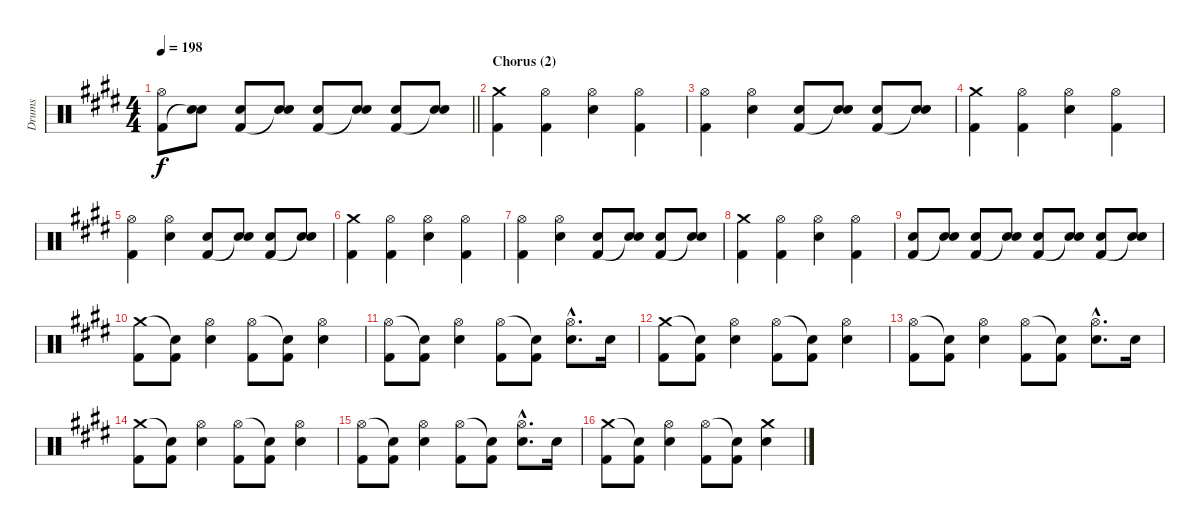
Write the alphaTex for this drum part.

\track ("Drums" "Drums") {instrument percussion}
\staff {score}
\articulation defaults
\ts (4 4)
\tempo 198
\clef neutral
\barLineRight lightlight
\ks c#minor
("Hi-Hat (open)" "Kick (hit) 2").8{dy f} ("Electric Snare (hit)" "Snare (hit)"{t}).8 ("Electric Snare (hit)" "Kick (hit) 2").8 ("Electric Snare (hit)" "Snare (hit)"{t}).8 ("Electric Snare (hit)" "Kick (hit) 2").8 ("Electric Snare (hit)" "Snare (hit)"{t}).8 ("Electric Snare (hit)" "Kick (hit) 2").8 ("Electric Snare (hit)" "Snare (hit)"{t}).8 |
\section ("" "Chorus (2)")
("Crash medium (hit)" "Kick (hit) 2").4 ("Hi-Hat (open)" "Kick (hit) 2").4 ("Hi-Hat (open)" "Electric Snare (hit)").4 ("Hi-Hat (open)" "Kick (hit) 2").4 |
("Hi-Hat (open)" "Kick (hit) 2").4 ("Hi-Hat (open)" "Electric Snare (hit)").4 ("Electric Snare (hit)" "Kick (hit) 2").8 ("Electric Snare (hit)" "Snare (hit)"{t}).8 ("Electric Snare (hit)" "Kick (hit) 2").8 ("Electric Snare (hit)" "Snare (hit)"{t}).8 |
("Crash medium (hit)" "Kick (hit) 2").4 ("Hi-Hat (open)" "Kick (hit) 2").4 ("Hi-Hat (open)" "Electric Snare (hit)").4 ("Hi-Hat (open)" "Kick (hit) 2").4 |
("Hi-Hat (open)" "Kick (hit) 2").4 ("Hi-Hat (open)" "Electric Snare (hit)").4 ("Electric Snare (hit)" "Kick (hit) 2").8 ("Electric Snare (hit)" "Snare (hit)"{t}).8 ("Electric Snare (hit)" "Kick (hit) 2").8 ("Electric Snare (hit)" "Snare (hit)"{t}).8 |
("Crash medium (hit)" "Kick (hit) 2").4 ("Hi-Hat (open)" "Kick (hit) 2").4 ("Hi-Hat (open)" "Electric Snare (hit)").4 ("Hi-Hat (open)" "Kick (hit) 2").4 |
("Hi-Hat (open)" "Kick (hit) 2").4 ("Hi-Hat (open)" "Electric Snare (hit)").4 ("Electric Snare (hit)" "Kick (hit) 2").8 ("Electric Snare (hit)" "Snare (hit)"{t}).8 ("Electric Snare (hit)" "Kick (hit) 2").8 ("Electric Snare (hit)" "Snare (hit)"{t}).8 |
("Crash medium (hit)" "Kick (hit) 2").4 ("Hi-Hat (open)" "Kick (hit) 2").4 ("Hi-Hat (open)" "Electric Snare (hit)").4 ("Hi-Hat (open)" "Kick (hit) 2").4 |
("Electric Snare (hit)" "Kick (hit) 2").8 ("Electric Snare (hit)" "Snare (hit)"{t}).8 ("Electric Snare (hit)" "Kick (hit) 2").8 ("Electric Snare (hit)" "Snare (hit)"{t}).8 ("Electric Snare (hit)" "Kick (hit) 2").8 ("Electric Snare (hit)" "Snare (hit)"{t}).8 ("Electric Snare (hit)" "Kick (hit) 2").8 ("Electric Snare (hit)" "Snare (hit)"{t}).8 |
("Crash medium (hit)" "Kick (hit) 2").8 ("Snare (hit)"{t} "Kick (hit) 2").8 ("Hi-Hat (open)" "Electric Snare (hit)").4 ("Hi-Hat (open)" "Kick (hit) 2").8 ("Snare (hit)"{t} "Kick (hit) 2").8 ("Hi-Hat (open)" "Electric Snare (hit)").4 |
("Hi-Hat (open)" "Kick (hit) 2").8 ("Snare (hit)"{t} "Kick (hit) 2").8 ("Hi-Hat (open)" "Electric Snare (hit)").4 ("Hi-Hat (open)" "Kick (hit) 2").8 ("Snare (hit)"{t} "Kick (hit) 2").8 ("Hi-Hat (open)"{hac} "Electric Snare (hit)"{hac}).8{d} "Electric Snare (hit)".16 |
("Crash medium (hit)" "Kick (hit) 2").8 ("Snare (hit)"{t} "Kick (hit) 2").8 ("Hi-Hat (open)" "Electric Snare (hit)").4 ("Hi-Hat (open)" "Kick (hit) 2").8 ("Snare (hit)"{t} "Kick (hit) 2").8 ("Hi-Hat (open)" "Electric Snare (hit)").4 |
("Hi-Hat (open)" "Kick (hit) 2").8 ("Snare (hit)"{t} "Kick (hit) 2").8 ("Hi-Hat (open)" "Electric Snare (hit)").4 ("Hi-Hat (open)" "Kick (hit) 2").8 ("Snare (hit)"{t} "Kick (hit) 2").8 ("Hi-Hat (open)"{hac} "Electric Snare (hit)"{hac}).8{d} "Electric Snare (hit)".16 |
("Crash medium (hit)" "Kick (hit) 2").8 ("Snare (hit)"{t} "Kick (hit) 2").8 ("Hi-Hat (open)" "Electric Snare (hit)").4 ("Hi-Hat (open)" "Kick (hit) 2").8 ("Snare (hit)"{t} "Kick (hit) 2").8 ("Hi-Hat (open)" "Electric Snare (hit)").4 |
("Hi-Hat (open)" "Kick (hit) 2").8 ("Snare (hit)"{t} "Kick (hit) 2").8 ("Hi-Hat (open)" "Electric Snare (hit)").4 ("Hi-Hat (open)" "Kick (hit) 2").8 ("Snare (hit)"{t} "Kick (hit) 2").8 ("Hi-Hat (open)"{hac} "Electric Snare (hit)"{hac}).8{d} "Electric Snare (hit)".16 |
("Crash medium (hit)" "Kick (hit) 2").8 ("Snare (hit)"{t} "Kick (hit) 2").8 ("Hi-Hat (open)" "Electric Snare (hit)").4 ("Hi-Hat (open)" "Kick (hit) 2").8 ("Snare (hit)"{t} "Kick (hit) 2").8 ("Crash medium (hit)" "Electric Snare (hit)").4
